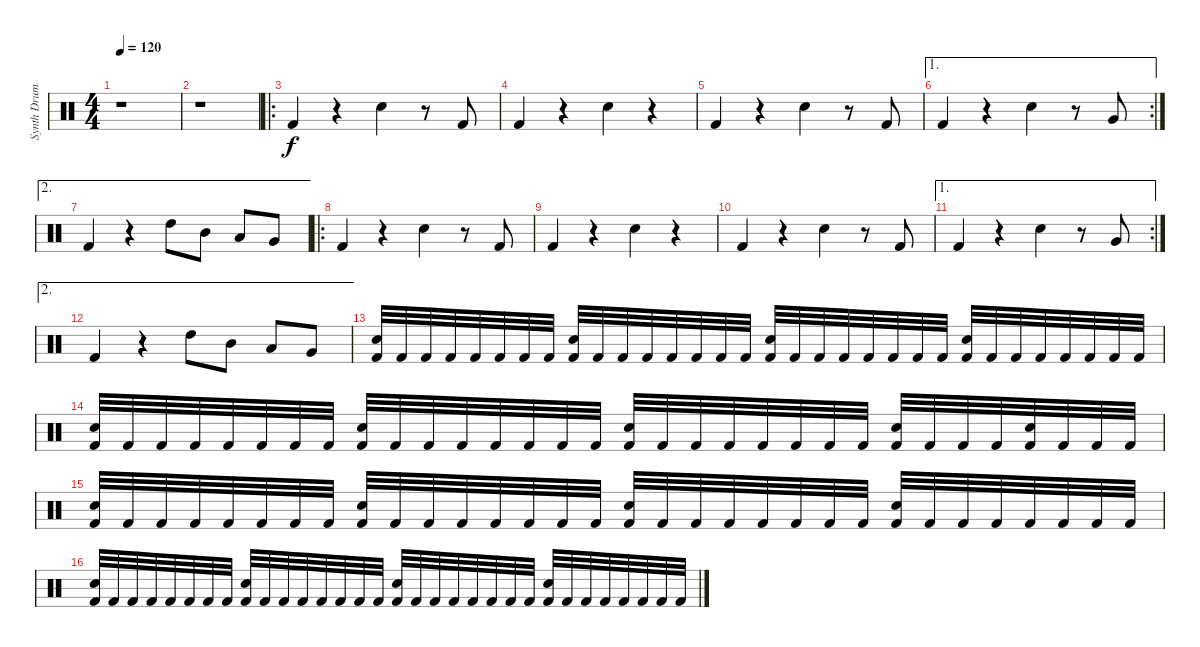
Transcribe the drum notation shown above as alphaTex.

\track ("Synth Drums" "Synth Drum") {instrument percussion}
\staff {score}
\articulation defaults
\ts (4 4)
\tempo 120
\clef neutral
\ks c
r.1{dy f} |
r.1 |
\ro "Kick (hit) 2".4
r.4 "Snare (hit) 2".4 r.8 "Kick (hit) 2".8 |
"Kick (hit) 2".4 r.4 "Snare (hit) 2".4 r.4 |
"Kick (hit) 2".4 r.4 "Snare (hit) 2".4 r.8 "Kick (hit) 2".8 |
\ae 1
\rc 2 "Kick (hit) 2".4
r.4 "Electric Snare (hit)".4 r.8 "Very Low Tom (hit)".8 |
\ae 2 "Kick (hit) 2".4
r.4 "High Tom (hit)".8 "Mid Tom (hit)".8 "Low Tom (hit)".8 "Very Low Tom (hit)".8 |
\ro "Kick (hit) 2".4
r.4 "Snare (hit) 2".4 r.8 "Kick (hit) 2".8 |
"Kick (hit) 2".4 r.4 "Snare (hit) 2".4 r.4 |
"Kick (hit) 2".4 r.4 "Snare (hit) 2".4 r.8 "Kick (hit) 2".8 |
\ae 1
\rc 2 "Kick (hit) 2".4
r.4 "Electric Snare (hit)".4 r.8 "Very Low Tom (hit)".8 |
\ae 2 "Kick (hit) 2".4
r.4 "High Tom (hit)".8 "Mid Tom (hit)".8 "Low Tom (hit)".8 "Very Low Tom (hit)".8 |
("Snare (hit) 2" "Kick (hit) 2").32 "Kick (hit) 2".32 "Kick (hit) 2".32 "Kick (hit) 2".32 "Kick (hit) 2".32 "Kick (hit) 2".32 "Kick (hit) 2".32 "Kick (hit) 2".32 ("Snare (hit) 2" "Kick (hit) 2").32 "Kick (hit) 2".32 "Kick (hit) 2".32 "Kick (hit) 2".32 "Kick (hit) 2".32 "Kick (hit) 2".32 "Kick (hit) 2".32 "Kick (hit) 2".32 ("Snare (hit) 2" "Kick (hit) 2").32 "Kick (hit) 2".32 "Kick (hit) 2".32 "Kick (hit) 2".32 "Kick (hit) 2".32 "Kick (hit) 2".32 "Kick (hit) 2".32 "Kick (hit) 2".32 ("Snare (hit) 2" "Kick (hit) 2").32 "Kick (hit) 2".32 "Kick (hit) 2".32 "Kick (hit) 2".32 "Kick (hit) 2".32 "Kick (hit) 2".32 "Kick (hit) 2".32 "Kick (hit) 2".32 |
("Snare (hit) 2" "Kick (hit) 2").32 "Kick (hit) 2".32 "Kick (hit) 2".32 "Kick (hit) 2".32 "Kick (hit) 2".32 "Kick (hit) 2".32 "Kick (hit) 2".32 "Kick (hit) 2".32 ("Snare (hit) 2" "Kick (hit) 2").32 "Kick (hit) 2".32 "Kick (hit) 2".32 "Kick (hit) 2".32 "Kick (hit) 2".32 "Kick (hit) 2".32 "Kick (hit) 2".32 "Kick (hit) 2".32 ("Snare (hit) 2" "Kick (hit) 2").32 "Kick (hit) 2".32 "Kick (hit) 2".32 "Kick (hit) 2".32 "Kick (hit) 2".32 "Kick (hit) 2".32 "Kick (hit) 2".32 "Kick (hit) 2".32 ("Snare (hit) 2" "Kick (hit) 2").32 "Kick (hit) 2".32 "Kick (hit) 2".32 "Kick (hit) 2".32 ("Snare (hit) 2" "Kick (hit) 2").32 "Kick (hit) 2".32 "Kick (hit) 2".32 "Kick (hit) 2".32 |
("Snare (hit) 2" "Kick (hit) 2").32 "Kick (hit) 2".32 "Kick (hit) 2".32 "Kick (hit) 2".32 "Kick (hit) 2".32 "Kick (hit) 2".32 "Kick (hit) 2".32 "Kick (hit) 2".32 ("Snare (hit) 2" "Kick (hit) 2").32 "Kick (hit) 2".32 "Kick (hit) 2".32 "Kick (hit) 2".32 "Kick (hit) 2".32 "Kick (hit) 2".32 "Kick (hit) 2".32 "Kick (hit) 2".32 ("Snare (hit) 2" "Kick (hit) 2").32 "Kick (hit) 2".32 "Kick (hit) 2".32 "Kick (hit) 2".32 "Kick (hit) 2".32 "Kick (hit) 2".32 "Kick (hit) 2".32 "Kick (hit) 2".32 ("Snare (hit) 2" "Kick (hit) 2").32 "Kick (hit) 2".32 "Kick (hit) 2".32 "Kick (hit) 2".32 "Kick (hit) 2".32 "Kick (hit) 2".32 "Kick (hit) 2".32 "Kick (hit) 2".32 |
("Snare (hit) 2" "Kick (hit) 2").32 "Kick (hit) 2".32 "Kick (hit) 2".32 "Kick (hit) 2".32 "Kick (hit) 2".32 "Kick (hit) 2".32 "Kick (hit) 2".32 "Kick (hit) 2".32 ("Snare (hit) 2" "Kick (hit) 2").32 "Kick (hit) 2".32 "Kick (hit) 2".32 "Kick (hit) 2".32 "Kick (hit) 2".32 "Kick (hit) 2".32 "Kick (hit) 2".32 "Kick (hit) 2".32 ("Snare (hit) 2" "Kick (hit) 2").32 "Kick (hit) 2".32 "Kick (hit) 2".32 "Kick (hit) 2".32 "Kick (hit) 2".32 "Kick (hit) 2".32 "Kick (hit) 2".32 "Kick (hit) 2".32 ("Snare (hit) 2" "Kick (hit) 2").32 "Kick (hit) 2".32 "Kick (hit) 2".32 "Kick (hit) 2".32 "Kick (hit) 2".32 "Kick (hit) 2".32 "Kick (hit) 2".32 "Kick (hit) 2".32
